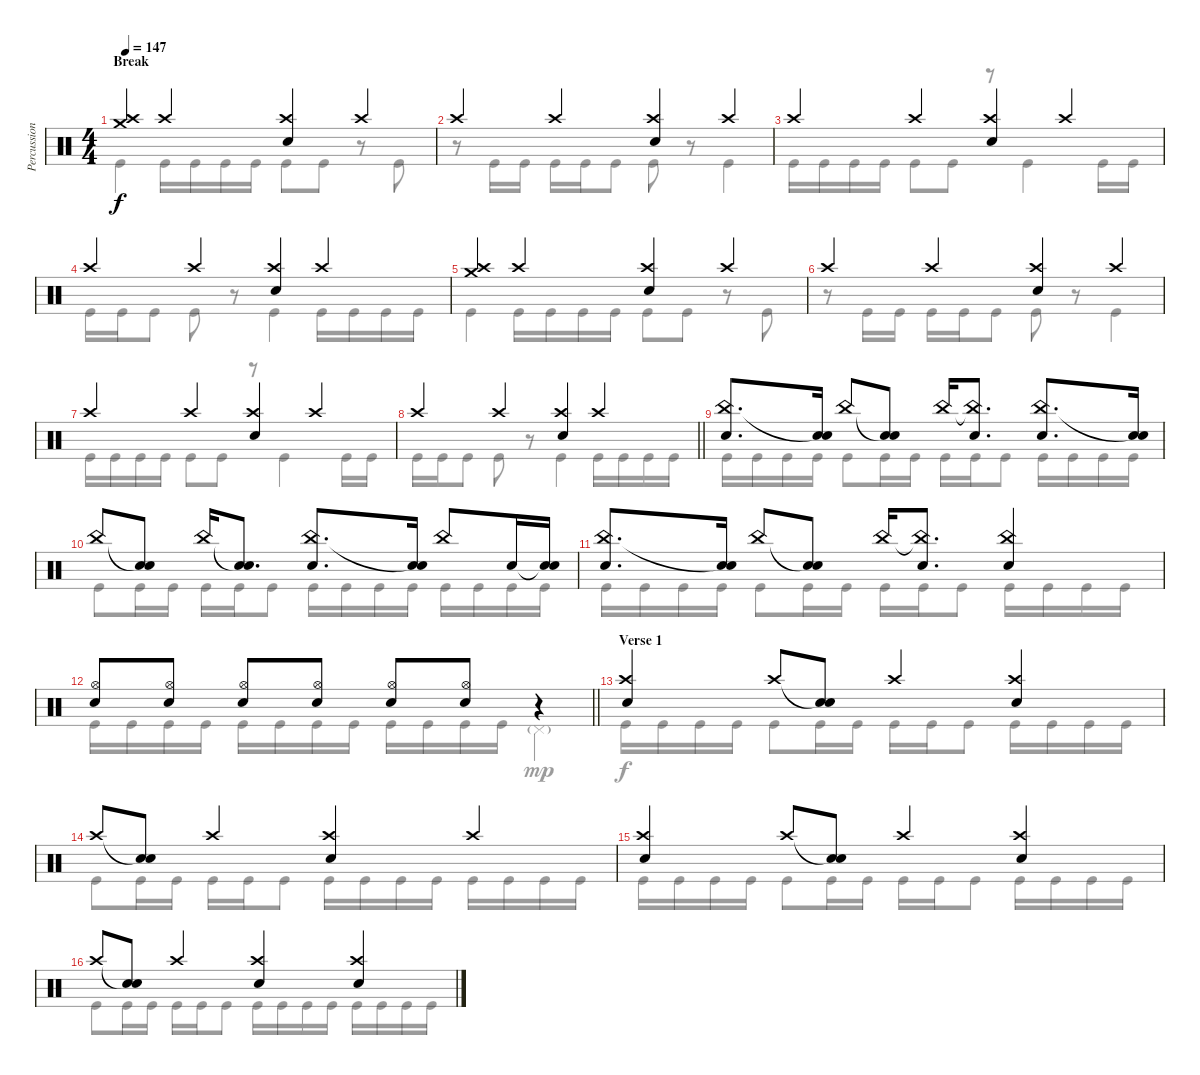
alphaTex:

\track ("Percussion" "Percussion") {instrument percussion}
\staff {score}
\articulation defaults
\voice
\ts (4 4)
\section ("" "Break")
\tempo 147
\clef neutral
\ks aminor
("Crash medium (hit)" "Crash high (hit)").4{dy f} "Crash high (hit)".4 ("Crash high (hit)" "Electric Snare (hit)").4 "Crash high (hit)".4 |
"Crash high (hit)".4 "Crash high (hit)".4 ("Crash high (hit)" "Electric Snare (hit)").4 "Crash high (hit)".4 |
"Crash high (hit)".4 "Crash high (hit)".4 ("Crash high (hit)" "Electric Snare (hit)").4 "Crash high (hit)".4 |
"Crash high (hit)".4 "Crash high (hit)".4 ("Crash high (hit)" "Electric Snare (hit)").4 "Crash high (hit)".4 |
("Crash medium (hit)" "Crash high (hit)").4 "Crash high (hit)".4 ("Crash high (hit)" "Electric Snare (hit)").4 "Crash high (hit)".4 |
"Crash high (hit)".4 "Crash high (hit)".4 ("Crash high (hit)" "Electric Snare (hit)").4 "Crash high (hit)".4 |
"Crash high (hit)".4 "Crash high (hit)".4 ("Crash high (hit)" "Electric Snare (hit)").4 "Crash high (hit)".4 |
\barLineRight lightlight "Crash high (hit)".4 "Crash high (hit)".4
("Crash high (hit)" "Electric Snare (hit)").4 "Crash high (hit)".4 |
\section ("" "")
("China (hit)" "Electric Snare (hit)").8{d} ("Snare (hit)"{t} "Electric Snare (hit)").16 "China (hit)".8 ("Snare (hit)"{t} "Electric Snare (hit)").8 "China (hit)".16 ("China (hit)"{t} "Electric Snare (hit)").8{d} ("China (hit)" "Electric Snare (hit)").8{d} ("Snare (hit)"{t} "Electric Snare (hit)").16 |
"China (hit)".8 ("Snare (hit)"{t} "Electric Snare (hit)").8 "China (hit)".16 ("Snare (hit)"{t} "Electric Snare (hit)").8{d} ("China (hit)" "Electric Snare (hit)").8{d} ("Snare (hit)"{t} "Electric Snare (hit)").16 "China (hit)".8 "Electric Snare (hit)".16 ("Snare (hit)"{t} "Electric Snare (hit)").16 |
("China (hit)" "Electric Snare (hit)").8{d} ("Snare (hit)"{t} "Electric Snare (hit)").16 "China (hit)".8 ("Snare (hit)"{t} "Electric Snare (hit)").8 "China (hit)".16 ("China (hit)"{t} "Electric Snare (hit)").8{d} ("China (hit)" "Electric Snare (hit)").4 |
\barLineRight lightlight
("Hi-Hat (open)" "Electric Snare (hit)").8 ("Hi-Hat (open)" "Electric Snare (hit)").8 ("Hi-Hat (open)" "Electric Snare (hit)").8 ("Hi-Hat (open)" "Electric Snare (hit)").8 ("Hi-Hat (open)" "Electric Snare (hit)").8 ("Hi-Hat (open)" "Electric Snare (hit)").8 r.4 |
\section ("" "Verse 1")
("Crash high (hit)" "Electric Snare (hit)").4 "Crash high (hit)".8 ("Snare (hit)"{t} "Electric Snare (hit)").8 "Crash high (hit)".4 ("Crash high (hit)" "Electric Snare (hit)").4 |
"Crash high (hit)".8 ("Snare (hit)"{t} "Electric Snare (hit)").8 "Crash high (hit)".4 ("Crash high (hit)" "Electric Snare (hit)").4 "Crash high (hit)".4 |
("Crash high (hit)" "Electric Snare (hit)").4 "Crash high (hit)".8 ("Snare (hit)"{t} "Electric Snare (hit)").8 "Crash high (hit)".4 ("Crash high (hit)" "Electric Snare (hit)").4 |
"Crash high (hit)".8 ("Snare (hit)"{t} "Electric Snare (hit)").8 "Crash high (hit)".4 ("Crash high (hit)" "Electric Snare (hit)").4 ("Crash high (hit)" "Electric Snare (hit)").4
\voice
\clef neutral
\ottava regular
\simile none
\ks aminor "Kick (hit)".4{dy f} "Kick (hit)".16 "Kick (hit)".16 "Kick (hit)".16 "Kick (hit)".16 "Kick (hit)".8 "Kick (hit)".8
r.8 "Kick (hit)".8 |
r.8 "Kick (hit)".16 "Kick (hit)".16 "Kick (hit)".16 "Kick (hit)".16 "Kick (hit)".8 "Kick (hit)".8 r.8 "Kick (hit)".4 |
"Kick (hit)".16 "Kick (hit)".16 "Kick (hit)".16 "Kick (hit)".16 "Kick (hit)".8 "Kick (hit)".8 r.8 "Kick (hit)".4 "Kick (hit)".16 "Kick (hit)".16 |
"Kick (hit)".16 "Kick (hit)".16 "Kick (hit)".8 "Kick (hit)".8 r.8 "Kick (hit)".4 "Kick (hit)".16 "Kick (hit)".16 "Kick (hit)".16 "Kick (hit)".16 |
"Kick (hit)".4 "Kick (hit)".16 "Kick (hit)".16 "Kick (hit)".16 "Kick (hit)".16 "Kick (hit)".8 "Kick (hit)".8 r.8 "Kick (hit)".8 |
r.8 "Kick (hit)".16 "Kick (hit)".16 "Kick (hit)".16 "Kick (hit)".16 "Kick (hit)".8 "Kick (hit)".8 r.8 "Kick (hit)".4 |
"Kick (hit)".16 "Kick (hit)".16 "Kick (hit)".16 "Kick (hit)".16 "Kick (hit)".8 "Kick (hit)".8 r.8 "Kick (hit)".4 "Kick (hit)".16 "Kick (hit)".16 |
\barLineRight lightlight "Kick (hit)".16 "Kick (hit)".16 "Kick (hit)".8 "Kick (hit)".8
r.8 "Kick (hit)".4 "Kick (hit)".16 "Kick (hit)".16 "Kick (hit)".16 "Kick (hit)".16 |
"Kick (hit)".16 "Kick (hit)".16 "Kick (hit)".16 "Kick (hit)".16 "Kick (hit)".8 "Kick (hit)".16 "Kick (hit)".16 "Kick (hit)".16 "Kick (hit)".16 "Kick (hit)".8 "Kick (hit)".16 "Kick (hit)".16 "Kick (hit)".16 "Kick (hit)".16 |
"Kick (hit)".8 "Kick (hit)".16 "Kick (hit)".16 "Kick (hit)".16 "Kick (hit)".16 "Kick (hit)".8 "Kick (hit)".16 "Kick (hit)".16 "Kick (hit)".16 "Kick (hit)".16 "Kick (hit)".16 "Kick (hit)".16 "Kick (hit)".16 "Kick (hit)".16 |
"Kick (hit)".16 "Kick (hit)".16 "Kick (hit)".16 "Kick (hit)".16 "Kick (hit)".8 "Kick (hit)".16 "Kick (hit)".16 "Kick (hit)".16 "Kick (hit)".16 "Kick (hit)".8 "Kick (hit)".16 "Kick (hit)".16 "Kick (hit)".16 "Kick (hit)".16 |
\barLineRight lightlight "Kick (hit)".16 "Kick (hit)".16 "Kick (hit)".16 "Kick (hit)".16 "Kick (hit)".16 "Kick (hit)".16 "Kick (hit)".16 "Kick (hit)".16 "Kick (hit)".16 "Kick (hit)".16 "Kick (hit)".16 "Kick (hit)".16 "Pedal Hi-Hat (hit)"{g}.4{dy mp}
|
"Kick (hit)".16{dy f} "Kick (hit)".16 "Kick (hit)".16 "Kick (hit)".16 "Kick (hit)".8 "Kick (hit)".16 "Kick (hit)".16 "Kick (hit)".16 "Kick (hit)".16 "Kick (hit)".8 "Kick (hit)".16 "Kick (hit)".16 "Kick (hit)".16 "Kick (hit)".16 |
"Kick (hit)".8 "Kick (hit)".16 "Kick (hit)".16 "Kick (hit)".16 "Kick (hit)".16 "Kick (hit)".8 "Kick (hit)".16 "Kick (hit)".16 "Kick (hit)".16 "Kick (hit)".16 "Kick (hit)".16 "Kick (hit)".16 "Kick (hit)".16 "Kick (hit)".16 |
"Kick (hit)".16 "Kick (hit)".16 "Kick (hit)".16 "Kick (hit)".16 "Kick (hit)".8 "Kick (hit)".16 "Kick (hit)".16 "Kick (hit)".16 "Kick (hit)".16 "Kick (hit)".8 "Kick (hit)".16 "Kick (hit)".16 "Kick (hit)".16 "Kick (hit)".16 |
"Kick (hit)".8 "Kick (hit)".16 "Kick (hit)".16 "Kick (hit)".16 "Kick (hit)".16 "Kick (hit)".8 "Kick (hit)".16 "Kick (hit)".16 "Kick (hit)".16 "Kick (hit)".16 "Kick (hit)".16 "Kick (hit)".16 "Kick (hit)".16 "Kick (hit)".16
